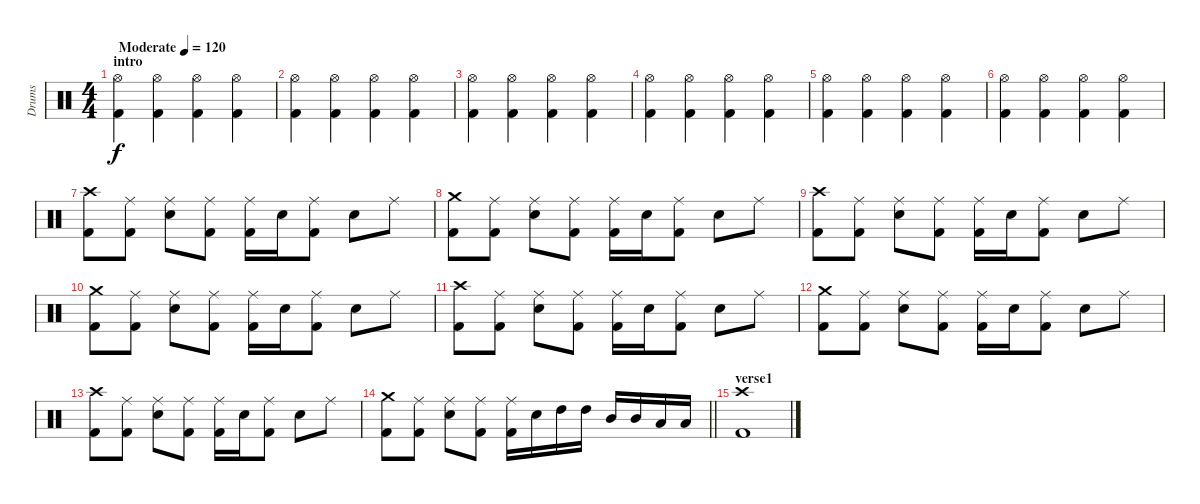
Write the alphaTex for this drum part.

\track ("Drums" "Drums") {instrument percussion}
\staff {score}
\articulation defaults
\ts (4 4)
\section ("" "intro")
\tempo (120 "Moderate")
\clef neutral
\ks c
("Hi-Hat (open)" "Kick (hit) 2").4{dy f} ("Hi-Hat (open)" "Kick (hit) 2").4 ("Hi-Hat (open)" "Kick (hit) 2").4 ("Hi-Hat (open)" "Kick (hit) 2").4 |
("Hi-Hat (open)" "Kick (hit) 2").4 ("Hi-Hat (open)" "Kick (hit) 2").4 ("Hi-Hat (open)" "Kick (hit) 2").4 ("Hi-Hat (open)" "Kick (hit) 2").4 |
("Hi-Hat (open)" "Kick (hit) 2").4 ("Hi-Hat (open)" "Kick (hit) 2").4 ("Hi-Hat (open)" "Kick (hit) 2").4 ("Hi-Hat (open)" "Kick (hit) 2").4 |
("Hi-Hat (open)" "Kick (hit) 2").4 ("Hi-Hat (open)" "Kick (hit) 2").4 ("Hi-Hat (open)" "Kick (hit) 2").4 ("Hi-Hat (open)" "Kick (hit) 2").4 |
("Hi-Hat (open)" "Kick (hit) 2").4 ("Hi-Hat (open)" "Kick (hit) 2").4 ("Hi-Hat (open)" "Kick (hit) 2").4 ("Hi-Hat (open)" "Kick (hit) 2").4 |
("Hi-Hat (open)" "Kick (hit) 2").4 ("Hi-Hat (open)" "Kick (hit) 2").4 ("Hi-Hat (open)" "Kick (hit) 2").4 ("Hi-Hat (open)" "Kick (hit) 2").4 |
("Crash high (hit)" "Kick (hit) 2").8 ("Ride (middle)" "Kick (hit) 2").8 ("Ride (middle)" "Snare (hit) 2").8 ("Ride (middle)" "Kick (hit) 2").8 ("Ride (middle)" "Kick (hit) 2").16 "Snare (hit) 2".16 ("Ride (middle)" "Kick (hit) 2").8 "Snare (hit) 2".8 "Ride (middle)".8 |
("Crash medium (hit)" "Kick (hit) 2").8 ("Ride (middle)" "Kick (hit) 2").8 ("Ride (middle)" "Snare (hit) 2").8 ("Ride (middle)" "Kick (hit) 2").8 ("Ride (middle)" "Kick (hit) 2").16 "Snare (hit) 2".16 ("Ride (middle)" "Kick (hit) 2").8 "Snare (hit) 2".8 "Ride (middle)".8 |
("Crash high (hit)" "Kick (hit) 2").8 ("Ride (middle)" "Kick (hit) 2").8 ("Ride (middle)" "Snare (hit) 2").8 ("Ride (middle)" "Kick (hit) 2").8 ("Ride (middle)" "Kick (hit) 2").16 "Snare (hit) 2".16 ("Ride (middle)" "Kick (hit) 2").8 "Snare (hit) 2".8 "Ride (middle)".8 |
("Crash medium (hit)" "Kick (hit) 2").8 ("Ride (middle)" "Kick (hit) 2").8 ("Ride (middle)" "Snare (hit) 2").8 ("Ride (middle)" "Kick (hit) 2").8 ("Ride (middle)" "Kick (hit) 2").16 "Snare (hit) 2".16 ("Ride (middle)" "Kick (hit) 2").8 "Snare (hit) 2".8 "Ride (middle)".8 |
("Crash high (hit)" "Kick (hit) 2").8 ("Ride (middle)" "Kick (hit) 2").8 ("Ride (middle)" "Snare (hit) 2").8 ("Ride (middle)" "Kick (hit) 2").8 ("Ride (middle)" "Kick (hit) 2").16 "Snare (hit) 2".16 ("Ride (middle)" "Kick (hit) 2").8 "Snare (hit) 2".8 "Ride (middle)".8 |
("Crash medium (hit)" "Kick (hit) 2").8 ("Ride (middle)" "Kick (hit) 2").8 ("Ride (middle)" "Snare (hit) 2").8 ("Ride (middle)" "Kick (hit) 2").8 ("Ride (middle)" "Kick (hit) 2").16 "Snare (hit) 2".16 ("Ride (middle)" "Kick (hit) 2").8 "Snare (hit) 2".8 "Ride (middle)".8 |
("Crash high (hit)" "Kick (hit) 2").8 ("Ride (middle)" "Kick (hit) 2").8 ("Ride (middle)" "Snare (hit) 2").8 ("Ride (middle)" "Kick (hit) 2").8 ("Ride (middle)" "Kick (hit) 2").16 "Snare (hit) 2".16 ("Ride (middle)" "Kick (hit) 2").8 "Snare (hit) 2".8 "Ride (middle)".8 |
\barLineRight lightlight
("Crash medium (hit)" "Kick (hit) 2").8 ("Ride (middle)" "Kick (hit) 2").8 ("Ride (middle)" "Snare (hit) 2").8 ("Ride (middle)" "Kick (hit) 2").8 ("Ride (middle)" "Kick (hit) 2").16 "Snare (hit) 2".16 "High Tom (hit)".16 "High Tom (hit)".16 "Mid Tom (hit)".16 "Mid Tom (hit)".16 "Low Tom (hit)".16 "Low Tom (hit)".16 |
\section ("" "verse1")
("Crash high (hit)" "Kick (hit) 2").1
